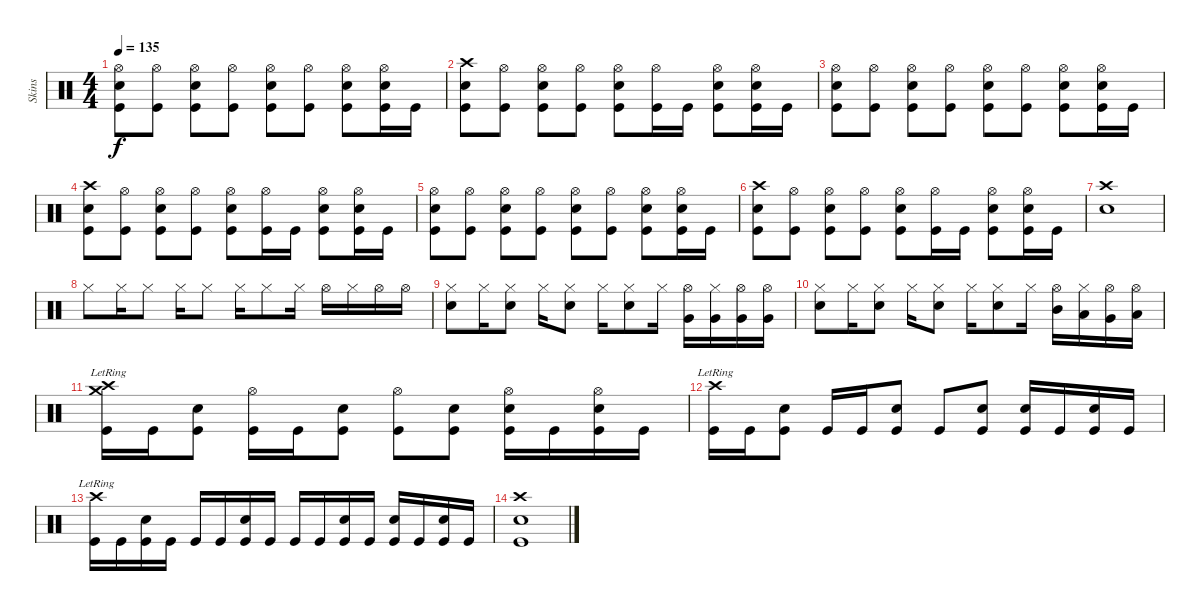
\track ("Skins" "Skins") {instrument percussion}
\staff {score}
\articulation defaults
\ts (4 4)
\tempo 135
\clef neutral
\ks c
("Hi-Hat (open)" "Snare (hit) 2" "Kick (hit)").8{dy f} ("Hi-Hat (open)" "Kick (hit)").8 ("Hi-Hat (open)" "Snare (hit) 2" "Kick (hit)").8 ("Hi-Hat (open)" "Kick (hit)").8 ("Hi-Hat (open)" "Snare (hit) 2" "Kick (hit)").8 ("Hi-Hat (open)" "Kick (hit)").8 ("Hi-Hat (open)" "Electric Snare (hit)" "Kick (hit)").8 ("Hi-Hat (open)" "Electric Snare (hit)" "Kick (hit)").16 "Kick (hit)".16 |
("Crash high (hit)" "Snare (hit) 2" "Kick (hit)").8 ("Hi-Hat (open)" "Kick (hit)").8 ("Hi-Hat (open)" "Snare (hit) 2" "Kick (hit)").8 ("Hi-Hat (open)" "Kick (hit)").8 ("Hi-Hat (open)" "Snare (hit) 2" "Kick (hit)").8 ("Hi-Hat (open)" "Kick (hit)").16 "Kick (hit)".16 ("Hi-Hat (open)" "Electric Snare (hit)" "Kick (hit)").8 ("Hi-Hat (open)" "Electric Snare (hit)" "Kick (hit)").16 "Kick (hit)".16 |
("Hi-Hat (open)" "Snare (hit) 2" "Kick (hit)").8 ("Hi-Hat (open)" "Kick (hit)").8 ("Hi-Hat (open)" "Snare (hit) 2" "Kick (hit)").8 ("Hi-Hat (open)" "Kick (hit)").8 ("Hi-Hat (open)" "Snare (hit) 2" "Kick (hit)").8 ("Hi-Hat (open)" "Kick (hit)").8 ("Hi-Hat (open)" "Electric Snare (hit)" "Kick (hit)").8 ("Hi-Hat (open)" "Electric Snare (hit)" "Kick (hit)").16 "Kick (hit)".16 |
("Crash high (hit)" "Snare (hit) 2" "Kick (hit)").8 ("Hi-Hat (open)" "Kick (hit)").8 ("Hi-Hat (open)" "Snare (hit) 2" "Kick (hit)").8 ("Hi-Hat (open)" "Kick (hit)").8 ("Hi-Hat (open)" "Snare (hit) 2" "Kick (hit)").8 ("Hi-Hat (open)" "Kick (hit)").16 "Kick (hit)".16 ("Hi-Hat (open)" "Electric Snare (hit)" "Kick (hit)").8 ("Hi-Hat (open)" "Electric Snare (hit)" "Kick (hit)").16 "Kick (hit)".16 |
("Hi-Hat (open)" "Snare (hit) 2" "Kick (hit)").8 ("Hi-Hat (open)" "Kick (hit)").8 ("Hi-Hat (open)" "Snare (hit) 2" "Kick (hit)").8 ("Hi-Hat (open)" "Kick (hit)").8 ("Hi-Hat (open)" "Snare (hit) 2" "Kick (hit)").8 ("Hi-Hat (open)" "Kick (hit)").8 ("Hi-Hat (open)" "Electric Snare (hit)" "Kick (hit)").8 ("Hi-Hat (open)" "Electric Snare (hit)" "Kick (hit)").16 "Kick (hit)".16 |
("Crash high (hit)" "Snare (hit) 2" "Kick (hit)").8 ("Hi-Hat (open)" "Kick (hit)").8 ("Hi-Hat (open)" "Snare (hit) 2" "Kick (hit)").8 ("Hi-Hat (open)" "Kick (hit)").8 ("Hi-Hat (open)" "Snare (hit) 2" "Kick (hit)").8 ("Hi-Hat (open)" "Kick (hit)").16 "Kick (hit)".16 ("Hi-Hat (open)" "Electric Snare (hit)" "Kick (hit)").8 ("Hi-Hat (open)" "Electric Snare (hit)" "Kick (hit)").16 "Kick (hit)".16 |
("Crash high (hit)" "Electric Snare (hit)").1 |
"Hi-Hat (closed)".8 "Hi-Hat (closed)".16 "Hi-Hat (closed)".8 "Hi-Hat (closed)".16 "Hi-Hat (closed)".8 "Hi-Hat (closed)".16 "Hi-Hat (closed)".8 "Hi-Hat (closed)".16 "Hi-Hat (open)".16 "Hi-Hat (closed)".16 "Hi-Hat (open)".16 "Hi-Hat (open)".16 |
("Hi-Hat (closed)" "Electric Snare (hit)").8 "Hi-Hat (closed)".16 ("Hi-Hat (closed)" "Electric Snare (hit)").8 "Hi-Hat (closed)".16 ("Hi-Hat (closed)" "Electric Snare (hit)").8 "Hi-Hat (closed)".16 ("Hi-Hat (closed)" "Electric Snare (hit)").8 "Hi-Hat (closed)".16 ("Hi-Hat (open)" "Very Low Tom (hit)").16 ("Hi-Hat (closed)" "Very Low Tom (hit)").16 ("Hi-Hat (open)" "Very Low Tom (hit)").16 ("Hi-Hat (open)" "Very Low Tom (hit)").16 |
("Hi-Hat (closed)" "Electric Snare (hit)").8 "Hi-Hat (closed)".16 ("Hi-Hat (closed)" "Electric Snare (hit)").8 "Hi-Hat (closed)".16 ("Hi-Hat (closed)" "Electric Snare (hit)").8 "Hi-Hat (closed)".16 ("Hi-Hat (closed)" "Electric Snare (hit)").8 "Hi-Hat (closed)".16 ("Hi-Hat (open)" "Mid Tom (hit)").16 ("Hi-Hat (closed)" "Low Tom (hit)").16 ("Hi-Hat (open)" "Very Low Tom (hit)").16 ("Hi-Hat (open)" "Low Floor Tom (hit)").16 |
("Kick (hit)" "Crash high (hit)"{lr} "Crash medium (hit)"{lr}).16 "Kick (hit)".16 ("Kick (hit)" "Electric Snare (hit)").8 ("Kick (hit)" "Hi-Hat (open)").16 "Kick (hit)".16 ("Kick (hit)" "Electric Snare (hit)").8 ("Kick (hit)" "Hi-Hat (open)").8 ("Kick (hit)" "Electric Snare (hit)").8 ("Kick (hit)" "Electric Snare (hit)" "Hi-Hat (open)").16 "Kick (hit)".16 ("Kick (hit)" "Electric Snare (hit)" "Hi-Hat (open)").16 "Kick (hit)".16 |
("Kick (hit)" "Crash high (hit)"{lr}).16 "Kick (hit)".16 ("Kick (hit)" "Electric Snare (hit)").8 "Kick (hit)".16 "Kick (hit)".16 ("Kick (hit)" "Electric Snare (hit)").8 "Kick (hit)".8 ("Kick (hit)" "Electric Snare (hit)").8 ("Kick (hit)" "Electric Snare (hit)").16 "Kick (hit)".16 ("Kick (hit)" "Electric Snare (hit)").16 "Kick (hit)".16 |
("Kick (hit)" "Crash high (hit)"{lr}).16 "Kick (hit)".16 ("Kick (hit)" "Electric Snare (hit)").16 "Kick (hit)".16 "Kick (hit)".16 "Kick (hit)".16 ("Kick (hit)" "Electric Snare (hit)").16 "Kick (hit)".16 "Kick (hit)".16 "Kick (hit)".16 ("Kick (hit)" "Electric Snare (hit)").16 "Kick (hit)".16 ("Kick (hit)" "Electric Snare (hit)").16 "Kick (hit)".16 ("Kick (hit)" "Electric Snare (hit)").16 "Kick (hit)".16 |
("Kick (hit)" "Electric Snare (hit)" "Crash high (hit)").1
